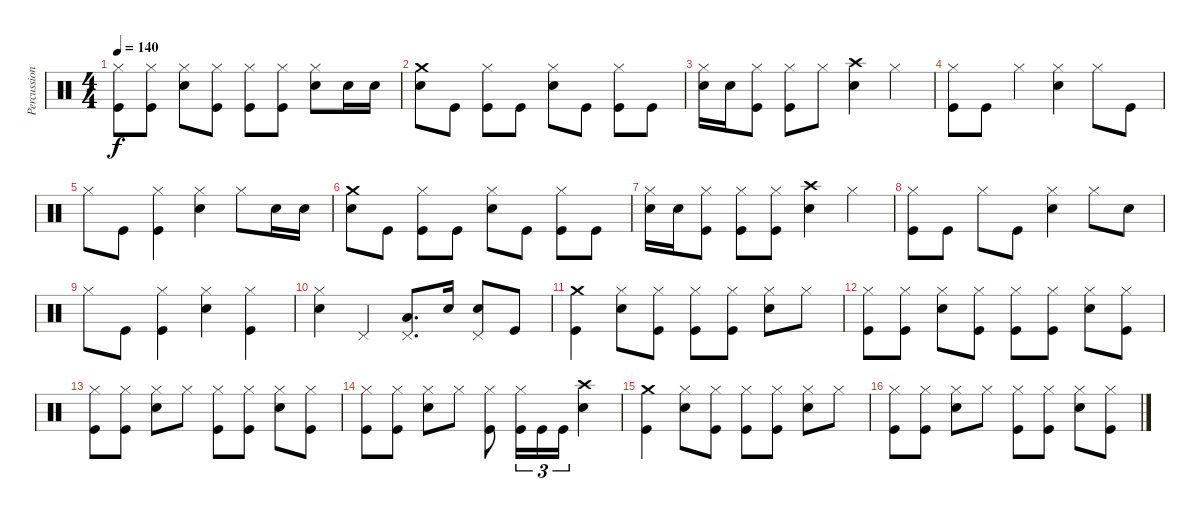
\track ("Percussion" "Percussion") {instrument percussion}
\staff {score}
\articulation defaults
\ts (4 4)
\tempo 140
\clef neutral
\ks c
("Kick (hit)" "Hi-Hat (closed)").8{dy f} ("Kick (hit)" "Hi-Hat (closed)").8 ("Snare (hit) 2" "Hi-Hat (closed)").8 ("Kick (hit)" "Hi-Hat (closed)").8 ("Kick (hit)" "Hi-Hat (closed)").8 ("Kick (hit)" "Hi-Hat (closed)").8 ("Snare (hit) 2" "Hi-Hat (closed)").8 "Snare (hit) 2".16 "Snare (hit) 2".16 |
("Snare (hit) 2" "Crash medium (hit)").8 "Kick (hit)".8 ("Kick (hit)" "Hi-Hat (closed)").8 "Kick (hit)".8 ("Snare (hit) 2" "Hi-Hat (closed)").8 "Kick (hit)".8 ("Kick (hit)" "Hi-Hat (closed)").8 "Kick (hit)".8 |
("Snare (hit) 2" "Hi-Hat (closed)").16 "Snare (hit) 2".16 ("Kick (hit)" "Hi-Hat (closed)").8 ("Kick (hit)" "Hi-Hat (closed)").8 "Hi-Hat (closed)".8 ("Snare (hit) 2" "Crash high (hit)").4 "Hi-Hat (closed)".4 |
("Kick (hit)" "Hi-Hat (closed)").8 "Kick (hit)".8 "Hi-Hat (closed)".4 ("Snare (hit) 2" "Hi-Hat (closed)").4 "Hi-Hat (closed)".8 "Kick (hit)".8 |
"Hi-Hat (closed)".8 "Kick (hit)".8 ("Kick (hit)" "Hi-Hat (closed)").4 ("Snare (hit) 2" "Hi-Hat (closed)").4 "Hi-Hat (closed)".8 "Snare (hit) 2".16 "Snare (hit) 2".16 |
("Snare (hit) 2" "Crash medium (hit)").8 "Kick (hit)".8 ("Kick (hit)" "Hi-Hat (closed)").8 "Kick (hit)".8 ("Snare (hit) 2" "Hi-Hat (closed)").8 "Kick (hit)".8 ("Kick (hit)" "Hi-Hat (closed)").8 "Kick (hit)".8 |
("Snare (hit) 2" "Hi-Hat (closed)").16 "Snare (hit) 2".16 ("Kick (hit)" "Hi-Hat (closed)").8 ("Kick (hit)" "Hi-Hat (closed)").8 ("Kick (hit)" "Hi-Hat (closed)").8 ("Snare (hit) 2" "Crash high (hit)").4 "Hi-Hat (closed)".4 |
("Kick (hit)" "Hi-Hat (closed)").8 "Kick (hit)".8 "Hi-Hat (closed)".8 "Kick (hit)".8 ("Snare (hit) 2" "Hi-Hat (closed)").4 "Hi-Hat (closed)".8 "Snare (hit) 2".8 |
"Hi-Hat (closed)".8 "Kick (hit)".8 ("Kick (hit)" "Hi-Hat (closed)").4 ("Snare (hit) 2" "Hi-Hat (closed)").4 ("Kick (hit)" "Hi-Hat (closed)").4 |
("Snare (hit) 2" "Hi-Hat (closed)").4 "Pedal Hi-Hat (hit)".4 ("Low Tom (hit)" "Pedal Hi-Hat (hit)").8{d} "Snare (hit) 2".16 ("Snare (hit) 2" "Pedal Hi-Hat (hit)").8 "Kick (hit)".8 |
("Kick (hit)" "Crash medium (hit)").4 ("Snare (hit) 2" "Hi-Hat (closed)").8 ("Kick (hit)" "Hi-Hat (closed)").8 ("Kick (hit)" "Hi-Hat (closed)").8 ("Kick (hit)" "Hi-Hat (closed)").8 ("Snare (hit) 2" "Hi-Hat (closed)").8 "Hi-Hat (closed)".8 |
("Kick (hit)" "Hi-Hat (closed)").8 ("Kick (hit)" "Hi-Hat (closed)").8 ("Snare (hit) 2" "Hi-Hat (closed)").8 ("Kick (hit)" "Hi-Hat (closed)").8 ("Kick (hit)" "Hi-Hat (closed)").8 ("Kick (hit)" "Hi-Hat (closed)").8 ("Snare (hit) 2" "Hi-Hat (closed)").8 ("Kick (hit)" "Hi-Hat (closed)").8 |
("Kick (hit)" "Hi-Hat (closed)").8 ("Kick (hit)" "Hi-Hat (closed)").8 ("Snare (hit) 2" "Hi-Hat (closed)").8 "Hi-Hat (closed)".8 ("Kick (hit)" "Hi-Hat (closed)").8 ("Kick (hit)" "Hi-Hat (closed)").8 ("Snare (hit) 2" "Hi-Hat (closed)").8 ("Kick (hit)" "Hi-Hat (closed)").8 |
("Kick (hit)" "Hi-Hat (closed)").8 ("Kick (hit)" "Hi-Hat (closed)").8 ("Snare (hit) 2" "Hi-Hat (closed)").8 "Hi-Hat (closed)".8 ("Kick (hit)" "Hi-Hat (closed)").8 ("Kick (hit)" "Hi-Hat (closed)").16{tu (3 2)} "Kick (hit)".16{tu (3 2)} "Kick (hit)".16{tu (3 2)} ("Snare (hit) 2" "Crash high (hit)").4 |
("Kick (hit)" "Crash medium (hit)").4 ("Snare (hit) 2" "Hi-Hat (closed)").8 ("Kick (hit)" "Hi-Hat (closed)").8 ("Kick (hit)" "Hi-Hat (closed)").8 ("Kick (hit)" "Hi-Hat (closed)").8 ("Snare (hit) 2" "Hi-Hat (closed)").8 "Hi-Hat (closed)".8 |
("Kick (hit)" "Hi-Hat (closed)").8 ("Kick (hit)" "Hi-Hat (closed)").8 ("Snare (hit) 2" "Hi-Hat (closed)").8 "Hi-Hat (closed)".8 ("Kick (hit)" "Hi-Hat (closed)").8 ("Kick (hit)" "Hi-Hat (closed)").8 ("Snare (hit) 2" "Hi-Hat (closed)").8 ("Kick (hit)" "Hi-Hat (closed)").8
